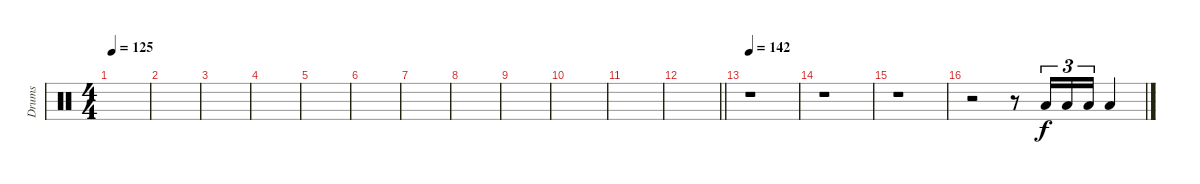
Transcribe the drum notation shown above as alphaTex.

\track ("Drums" "Drums") {instrument percussion}
\staff {score}
\articulation defaults
\ts (4 4)
\tempo 125
\clef neutral
\ks c
|
|
|
|
|
|
|
|
|
|
|
\barLineRight lightlight
|
\tempo 142
r.1 |
r.1 |
r.1 |
r.2 r.8 "Low Floor Tom (hit)".16{tu (3 2)} "Low Floor Tom (hit)".16{tu (3 2)} "Low Floor Tom (hit)".16{tu (3 2)} "Low Floor Tom (hit)".4
